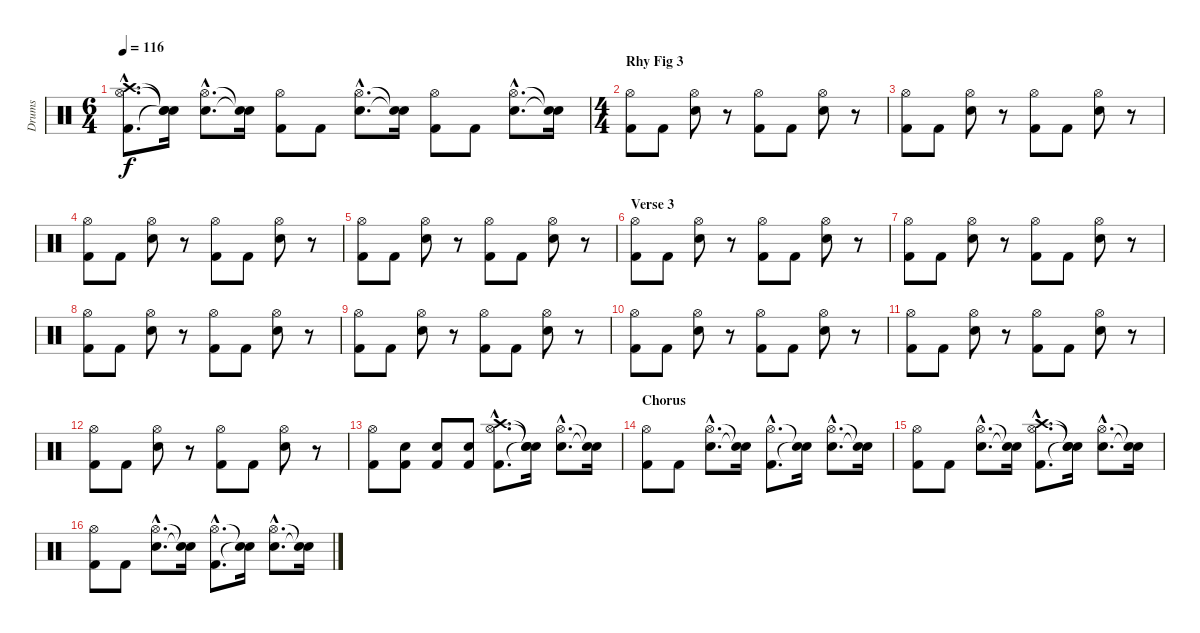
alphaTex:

\track ("Drums" "Drums") {instrument percussion}
\staff {score}
\articulation defaults
\ts (6 4)
\tempo 116
\clef neutral
\ks c
("Kick (hit) 2"{hac} "Hi-Hat (open)"{hac} "Crash high (hit)"{hac}).8{d dy f} ("Snare (hit)"{t} "Snare (hit)"{t} "Snare (hit)"{t}).16 ("Snare (hit) 2"{hac} "Hi-Hat (open)"{hac}).8{d} ("Snare (hit)"{t} "Snare (hit)"{t}).16 ("Kick (hit) 2" "Hi-Hat (open)").8 "Kick (hit) 2".8 ("Snare (hit) 2"{hac} "Hi-Hat (open)"{hac}).8{d} ("Snare (hit)"{t} "Snare (hit)"{t}).16 ("Kick (hit) 2" "Hi-Hat (open)").8 "Kick (hit) 2".8 ("Snare (hit) 2"{hac} "Hi-Hat (open)"{hac}).8{d} ("Snare (hit)"{t} "Snare (hit)"{t}).16 |
\ts (4 4)
\section ("" "Rhy Fig 3")
("Kick (hit) 2" "Hi-Hat (open)").8 "Kick (hit) 2".8 ("Snare (hit) 2" "Hi-Hat (open)").8 r.8 ("Kick (hit) 2" "Hi-Hat (open)").8 "Kick (hit) 2".8 ("Snare (hit) 2" "Hi-Hat (open)").8 r.8 |
("Kick (hit) 2" "Hi-Hat (open)").8 "Kick (hit) 2".8 ("Snare (hit) 2" "Hi-Hat (open)").8 r.8 ("Kick (hit) 2" "Hi-Hat (open)").8 "Kick (hit) 2".8 ("Snare (hit) 2" "Hi-Hat (open)").8 r.8 |
("Kick (hit) 2" "Hi-Hat (open)").8 "Kick (hit) 2".8 ("Snare (hit) 2" "Hi-Hat (open)").8 r.8 ("Kick (hit) 2" "Hi-Hat (open)").8 "Kick (hit) 2".8 ("Snare (hit) 2" "Hi-Hat (open)").8 r.8 |
("Kick (hit) 2" "Hi-Hat (open)").8 "Kick (hit) 2".8 ("Snare (hit) 2" "Hi-Hat (open)").8 r.8 ("Kick (hit) 2" "Hi-Hat (open)").8 "Kick (hit) 2".8 ("Snare (hit) 2" "Hi-Hat (open)").8 r.8 |
\section ("" "Verse 3")
("Kick (hit) 2" "Hi-Hat (open)").8 "Kick (hit) 2".8 ("Snare (hit) 2" "Hi-Hat (open)").8 r.8 ("Kick (hit) 2" "Hi-Hat (open)").8 "Kick (hit) 2".8 ("Snare (hit) 2" "Hi-Hat (open)").8 r.8 |
("Kick (hit) 2" "Hi-Hat (open)").8 "Kick (hit) 2".8 ("Snare (hit) 2" "Hi-Hat (open)").8 r.8 ("Kick (hit) 2" "Hi-Hat (open)").8 "Kick (hit) 2".8 ("Snare (hit) 2" "Hi-Hat (open)").8 r.8 |
("Kick (hit) 2" "Hi-Hat (open)").8 "Kick (hit) 2".8 ("Snare (hit) 2" "Hi-Hat (open)").8 r.8 ("Kick (hit) 2" "Hi-Hat (open)").8 "Kick (hit) 2".8 ("Snare (hit) 2" "Hi-Hat (open)").8 r.8 |
("Kick (hit) 2" "Hi-Hat (open)").8 "Kick (hit) 2".8 ("Snare (hit) 2" "Hi-Hat (open)").8 r.8 ("Kick (hit) 2" "Hi-Hat (open)").8 "Kick (hit) 2".8 ("Snare (hit) 2" "Hi-Hat (open)").8 r.8 |
("Kick (hit) 2" "Hi-Hat (open)").8 "Kick (hit) 2".8 ("Snare (hit) 2" "Hi-Hat (open)").8 r.8 ("Kick (hit) 2" "Hi-Hat (open)").8 "Kick (hit) 2".8 ("Snare (hit) 2" "Hi-Hat (open)").8 r.8 |
("Kick (hit) 2" "Hi-Hat (open)").8 "Kick (hit) 2".8 ("Snare (hit) 2" "Hi-Hat (open)").8 r.8 ("Kick (hit) 2" "Hi-Hat (open)").8 "Kick (hit) 2".8 ("Snare (hit) 2" "Hi-Hat (open)").8 r.8 |
("Kick (hit) 2" "Hi-Hat (open)").8 "Kick (hit) 2".8 ("Snare (hit) 2" "Hi-Hat (open)").8 r.8 ("Kick (hit) 2" "Hi-Hat (open)").8 "Kick (hit) 2".8 ("Snare (hit) 2" "Hi-Hat (open)").8 r.8 |
("Kick (hit) 2" "Hi-Hat (open)").8 ("Kick (hit) 2" "Snare (hit) 2").8 ("Kick (hit) 2" "Snare (hit) 2").8 ("Kick (hit) 2" "Snare (hit) 2").8 ("Kick (hit) 2"{hac} "Hi-Hat (open)"{hac} "Crash high (hit)"{hac}).8{d} ("Snare (hit)"{t} "Snare (hit)"{t} "Snare (hit)"{t}).16 ("Snare (hit) 2"{hac} "Hi-Hat (open)"{hac}).8{d} ("Snare (hit)"{t} "Snare (hit)"{t}).16 |
\section ("" "Chorus")
("Kick (hit) 2" "Hi-Hat (open)").8 "Kick (hit) 2".8 ("Snare (hit) 2"{hac} "Hi-Hat (open)"{hac}).8{d} ("Snare (hit)"{t} "Snare (hit)"{t}).16 ("Kick (hit) 2"{hac} "Hi-Hat (open)"{hac}).8{d} ("Snare (hit)"{t} "Snare (hit)"{t}).16 ("Snare (hit) 2"{hac} "Hi-Hat (open)"{hac}).8{d} ("Snare (hit)"{t} "Snare (hit)"{t}).16 |
("Kick (hit) 2" "Hi-Hat (open)").8 "Kick (hit) 2".8 ("Snare (hit) 2"{hac} "Hi-Hat (open)"{hac}).8{d} ("Snare (hit)"{t} "Snare (hit)"{t}).16 ("Kick (hit) 2"{hac} "Hi-Hat (open)"{hac} "Crash high (hit)"{hac}).8{d} ("Snare (hit)"{t} "Snare (hit)"{t} "Snare (hit)"{t}).16 ("Snare (hit) 2"{hac} "Hi-Hat (open)"{hac}).8{d} ("Snare (hit)"{t} "Snare (hit)"{t}).16 |
("Kick (hit) 2" "Hi-Hat (open)").8 "Kick (hit) 2".8 ("Snare (hit) 2"{hac} "Hi-Hat (open)"{hac}).8{d} ("Snare (hit)"{t} "Snare (hit)"{t}).16 ("Kick (hit) 2"{hac} "Hi-Hat (open)"{hac}).8{d} ("Snare (hit)"{t} "Snare (hit)"{t}).16 ("Snare (hit) 2"{hac} "Hi-Hat (open)"{hac}).8{d} ("Snare (hit)"{t} "Snare (hit)"{t}).16
